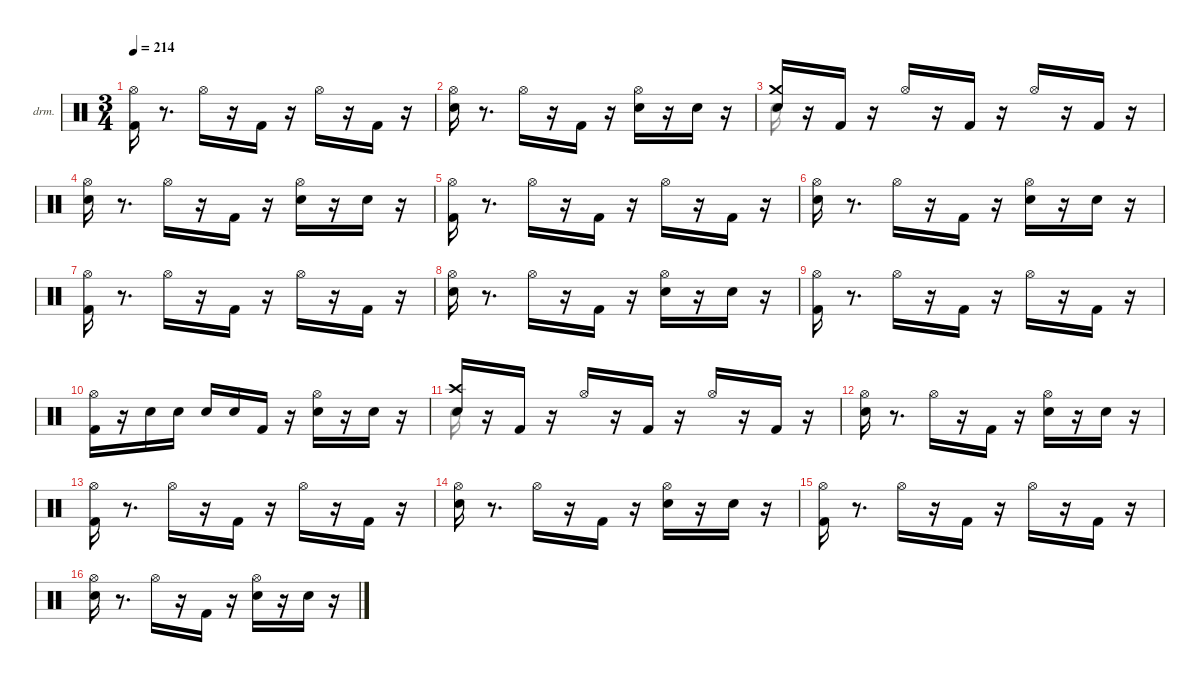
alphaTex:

\hideDynamics
\bracketExtendMode nobrackets
\firstSystemTrackNameOrientation horizontal
\track ("EZdrummer 3" "drm.") {instrument percussion}
\staff {score}
\articulation defaults
\voice
\ts (3 4)
\tempo 214
\clef neutral
\ks aminor
("Kick (hit) 2" "Hi-Hat (open)"{acc #}).16{dy ff} r.8{d} "Hi-Hat (open)"{acc #}.16{dy mf} r.16 "Kick (hit) 2".16{dy p} r.16 "Hi-Hat (open)"{acc #}.16{dy mp} r.16 "Kick (hit) 2".16{dy mf} r.16 |
("Snare (hit) 2" "Hi-Hat (open)"{acc #}).16{dy ff} r.8{d} "Hi-Hat (open)"{acc #}.16{dy mp} r.16 "Kick (hit) 2".16{dy f} r.16 ("Snare (hit) 2" "Hi-Hat (open)"{acc #}).16{dy mp} r.16 "Snare (hit) 2".16{dy pp} r.16 |
("Snare (hit) 2" "Crash medium (hit)").16{dy ppp} r.16 "Kick (hit) 2".16{dy f} r.16 "Hi-Hat (open)"{acc #}.16{dy mf} r.16 "Kick (hit) 2".16{dy p} r.16 "Hi-Hat (open)"{acc #}.16{dy mp} r.16 "Kick (hit) 2".16{dy mf} r.16 |
("Snare (hit) 2" "Hi-Hat (open)"{acc #}).16{dy ff} r.8{d} "Hi-Hat (open)"{acc #}.16{dy mf} r.16 "Kick (hit) 2".16{dy f} r.16 ("Snare (hit) 2" "Hi-Hat (open)"{acc #}).16{dy mp} r.16 "Snare (hit) 2".16{dy pp} r.16 |
("Kick (hit) 2" "Hi-Hat (open)"{acc #}).16{dy ff} r.8{d} "Hi-Hat (open)"{acc #}.16{dy mf} r.16 "Kick (hit) 2".16{dy p} r.16 "Hi-Hat (open)"{acc #}.16{dy mp} r.16 "Kick (hit) 2".16{dy mf} r.16 |
("Snare (hit) 2" "Hi-Hat (open)"{acc #}).16 r.8{d} "Hi-Hat (open)"{acc #}.16{dy mp} r.16 "Kick (hit) 2".16{dy f} r.16 ("Snare (hit) 2" "Hi-Hat (open)"{acc #}).16{dy mf} r.16 "Snare (hit) 2".16{dy pp} r.16 |
("Kick (hit) 2" "Hi-Hat (open)"{acc #}).16{dy ff} r.8{d} "Hi-Hat (open)"{acc #}.16{dy mf} r.16 "Kick (hit) 2".16{dy p} r.16 "Hi-Hat (open)"{acc #}.16{dy mp} r.16 "Kick (hit) 2".16{dy mf} r.16 |
("Snare (hit) 2" "Hi-Hat (open)"{acc #}).16 r.8{d} "Hi-Hat (open)"{acc #}.16 r.16 "Kick (hit) 2".16{dy f} r.16 ("Snare (hit) 2" "Hi-Hat (open)"{acc #}).16{dy mp} r.16 "Snare (hit) 2".16{dy pp} r.16 |
("Kick (hit) 2" "Hi-Hat (open)"{acc #}).16{dy fff} r.8{d} "Hi-Hat (open)"{acc #}.16{dy mf} r.16 "Kick (hit) 2".16{dy p} r.16 "Hi-Hat (open)"{acc #}.16{dy mp} r.16 "Kick (hit) 2".16{dy mf} r.16 |
("Kick (hit) 2" "Hi-Hat (open)"{acc #}).16{dy ff} r.16 "Snare (hit) 2".16{dy f} "Snare (hit) 2".16{dy p} "Snare (hit) 2".16{dy mp} "Snare (hit) 2".16{dy pp} "Kick (hit) 2".16{dy f} r.16 ("Snare (hit) 2" "Hi-Hat (open)"{acc #}).16{dy mp} r.16 "Snare (hit) 2".16{dy pp} r.16 |
("Snare (hit) 2" "Crash high (hit)"{acc #}).16{dy ppp} r.16 "Kick (hit) 2".16{dy f} r.16 "Hi-Hat (open)"{acc #}.16{dy mf} r.16 "Kick (hit) 2".16{dy p} r.16 "Hi-Hat (open)"{acc #}.16{dy mp} r.16 "Kick (hit) 2".16{dy mf} r.16 |
("Snare (hit) 2" "Hi-Hat (open)"{acc #}).16 r.8{d} "Hi-Hat (open)"{acc #}.16 r.16 "Kick (hit) 2".16{dy f} r.16 ("Snare (hit) 2" "Hi-Hat (open)"{acc #}).16{dy mp} r.16 "Snare (hit) 2".16{dy pp} r.16 |
("Kick (hit) 2" "Hi-Hat (open)"{acc #}).16{dy ff} r.8{d} "Hi-Hat (open)"{acc #}.16{dy mf} r.16 "Kick (hit) 2".16{dy p} r.16 "Hi-Hat (open)"{acc #}.16{dy mp} r.16 "Kick (hit) 2".16{dy mf} r.16 |
("Snare (hit) 2" "Hi-Hat (open)"{acc #}).16 r.8{d} "Hi-Hat (open)"{acc #}.16{dy mp} r.16 "Kick (hit) 2".16{dy f} r.16 ("Snare (hit) 2" "Hi-Hat (open)"{acc #}).16{dy mp} r.16 "Snare (hit) 2".16{dy pp} r.16 |
("Kick (hit) 2" "Hi-Hat (open)"{acc #}).16{dy ff} r.8{d} "Hi-Hat (open)"{acc #}.16{dy mf} r.16 "Kick (hit) 2".16{dy p} r.16 "Hi-Hat (open)"{acc #}.16{dy mp} r.16 "Kick (hit) 2".16{dy mf} r.16 |
("Snare (hit) 2" "Hi-Hat (open)"{acc #}).16 r.8{d} "Hi-Hat (open)"{acc #}.16 r.16 "Kick (hit) 2".16{dy f} r.16 ("Snare (hit) 2" "Hi-Hat (open)"{acc #}).16{dy mp} r.16 "Snare (hit) 2".16{dy pp} r.16
\voice
\clef neutral
\ottava regular
\simile none
\ks aminor
|
|
"Snare (hit) 2".16{dy ff} |
|
|
|
|
|
|
|
"Snare (hit) 2".16 |
|
|
|
|
